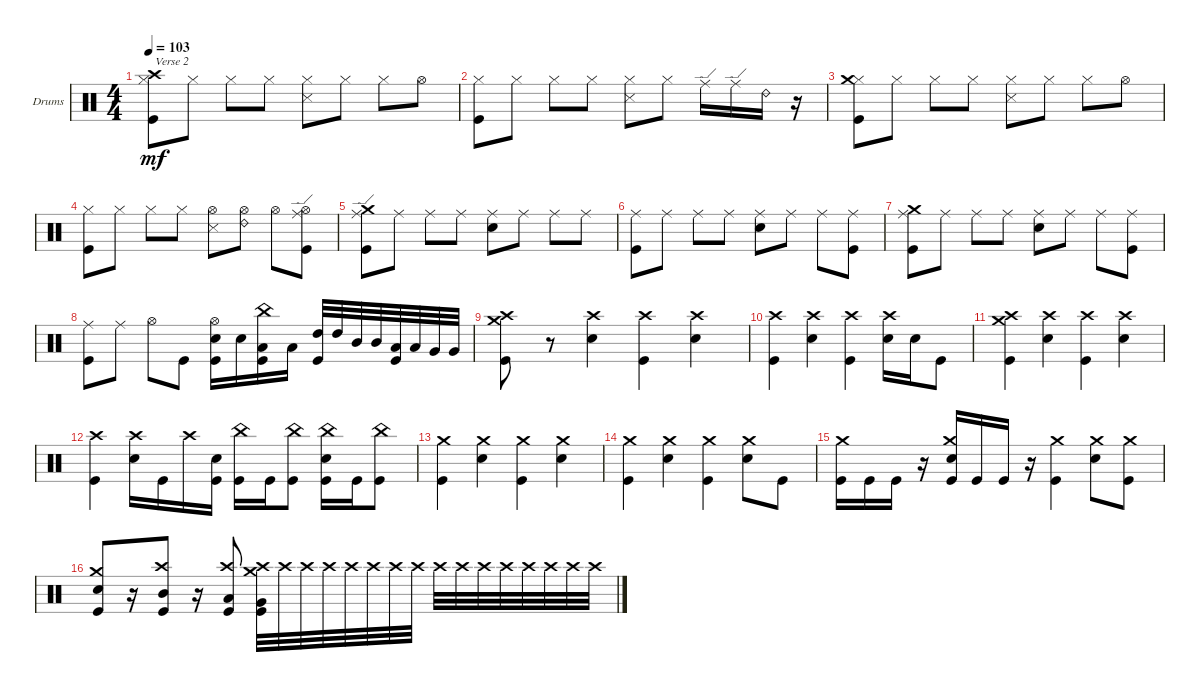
\bracketExtendMode groupsimilarinstruments
\firstSystemTrackNameOrientation horizontal
\otherSystemsTrackNameOrientation horizontal
\track ("Drums" "Drums") {instrument percussion}
\staff {score}
\articulation defaults
\ts (4 4)
\tempo 103
\clef neutral
\ks c
("Hi-Hat (closed)" "Kick (hit)" "Crash high (hit)").8{txt "Verse 2" dy mf} "Hi-Hat (closed)".8 "Hi-Hat (closed)".8 "Hi-Hat (closed)".8 ("Snare (side stick) 3" "Hi-Hat (closed)").8 "Hi-Hat (closed)".8 "Hi-Hat (closed)".8 "Hi-Hat (open)".8 |
("Hi-Hat (closed)" "Kick (hit)").8 "Hi-Hat (closed)".8 "Hi-Hat (closed)".8 "Hi-Hat (closed)".8 ("Snare (side stick) 3" "Hi-Hat (closed)").8 "Hi-Hat (closed)".8 "Ride (edge)".16 "Ride (edge)".16 "Ride (bell) 2".16 r.16 |
("Hi-Hat (closed)" "Crash medium (hit)" "Kick (hit)").8 "Hi-Hat (closed)".8 "Hi-Hat (closed)".8 "Hi-Hat (closed)".8 ("Snare (side stick) 3" "Hi-Hat (closed)").8 "Hi-Hat (closed)".8 "Hi-Hat (closed)".8 "Hi-Hat (open)".8 |
("Hi-Hat (closed)" "Kick (hit)").8 "Hi-Hat (closed)".8 "Hi-Hat (closed)".8 "Hi-Hat (closed)".8 ("Snare (side stick) 3" "Hi-Hat (open)").8 ("Hi-Hat (open)" "Ride (bell) 2").8 "Hi-Hat (open)".8 ("Ride (edge)" "Kick (hit)" "Hi-Hat (open)").8 |
("Ride (edge)" "Crash medium (hit)" "Kick (hit)").8 "Ride (middle)".8 "Ride (middle)".8 "Ride (middle)".8 ("Snare (hit) 2" "Ride (middle)").8 "Ride (middle)".8 "Ride (middle)".8 "Ride (middle)".8 |
("Kick (hit)" "Ride (middle)").8 "Ride (middle)".8 "Ride (middle)".8 "Ride (middle)".8 ("Snare (hit) 2" "Ride (middle)").8 "Ride (middle)".8 "Ride (middle)".8 ("Kick (hit)" "Ride (middle)").8 |
("Kick (hit)" "Crash medium (hit)" "Ride (middle)").8 "Ride (middle)".8 "Ride (middle)".8 "Ride (middle)".8 ("Snare (hit) 2" "Ride (middle)").8 "Ride (middle)".8 "Ride (middle)".8 ("Kick (hit)" "Ride (middle)").8 |
("Kick (hit)" "Ride (middle)").8 "Ride (middle)".8 "Hi-Hat (open)".8 "Kick (hit)".8 ("Snare (hit) 2" "Kick (hit)" "Hi-Hat (open)").16 "Snare (hit) 2".16 ("Low Tom (hit)" "Kick (hit)" "China (hit)").16 "Low Tom (hit)".16 ("High Tom (hit)" "Kick (hit)").32 "High Tom (hit)".32 "Mid Tom (hit)".32 "Mid Tom (hit)".32 ("Low Tom (hit)" "Kick (hit)").32 "Low Tom (hit)".32 "Very Low Tom (hit)".32 "Very Low Tom (hit)".32 |
("Kick (hit)" "Crash high (hit)" "Crash medium (hit)").8 r.8 ("Snare (hit) 2" "Crash high (hit)").4 ("Kick (hit)" "Crash high (hit)").4 ("Snare (hit) 2" "Crash high (hit)").4 |
("Kick (hit)" "Crash high (hit)").4 ("Snare (hit) 2" "Crash high (hit)").4 ("Kick (hit)" "Crash high (hit)").4 ("Snare (hit) 2" "Crash high (hit)").16 "Snare (hit) 2".16 "Kick (hit)".8 |
("Kick (hit)" "Crash medium (hit)" "Crash high (hit)").4 ("Snare (hit) 2" "Crash high (hit)").4 ("Kick (hit)" "Crash high (hit)").4 ("Snare (hit) 2" "Crash high (hit)").4 |
("Kick (hit)" "Crash high (hit)").4 ("Snare (hit) 2" "Crash high (hit)").16 "Kick (hit)".16 "Crash high (hit)".16 ("Snare (hit) 2" "Kick (hit)").16 ("Kick (hit)" "China (hit)").16 "Kick (hit)".16 ("Kick (hit)" "China (hit)").8 ("Kick (hit)" "Snare (hit) 2" "China (hit)").16 "Kick (hit)".16 ("Kick (hit)" "China (hit)").8 |
("Kick (hit)" "Crash medium (hit)").4 ("Snare (hit) 2" "Crash medium (hit)").4 ("Kick (hit)" "Crash medium (hit)").4 ("Snare (hit) 2" "Crash medium (hit)").4 |
("Kick (hit)" "Crash medium (hit)").4 ("Snare (hit) 2" "Crash medium (hit)").4 ("Kick (hit)" "Crash medium (hit)").4 ("Snare (hit) 2" "Crash medium (hit)").8 "Kick (hit)".8 |
("Kick (hit)" "Crash medium (hit)").16 "Kick (hit)".16 "Kick (hit)".16 r.16 ("Kick (hit)" "Crash medium (hit)" "Snare (hit) 2").16 "Kick (hit)".16 "Kick (hit)".16 r.16 ("Kick (hit)" "Crash medium (hit)").4 ("Snare (hit) 2" "Crash medium (hit)").8 ("Kick (hit)" "Crash medium (hit)").8 |
("Snare (hit) 2" "Kick (hit)" "Crash medium (hit)").8 r.16 ("Crash high (hit)" "Kick (hit)" "Mid Tom (hit)").8 r.16 ("Crash high (hit)" "Kick (hit)" "Low Tom (hit)").8 ("Crash high (hit)" "Very Low Tom (hit)" "Kick (hit)" "Crash medium (hit)").32 "Crash high (hit)".32 "Crash high (hit)".32 "Crash high (hit)".32 "Crash high (hit)".32 "Crash high (hit)".32 "Crash high (hit)".32 "Crash high (hit)".32 "Crash high (hit)".32 "Crash high (hit)".32 "Crash high (hit)".32 "Crash high (hit)".32 "Crash high (hit)".32 "Crash high (hit)".32 "Crash high (hit)".32 "Crash high (hit)".32
